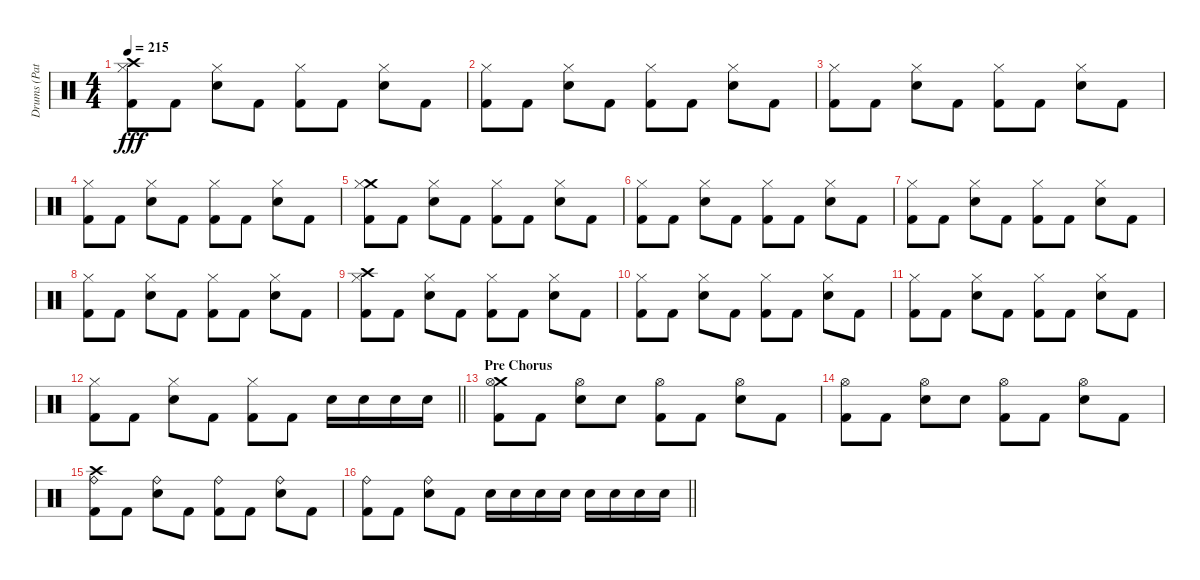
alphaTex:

\track ("Drums (Pat Thetic)" "Drums (Pat") {instrument percussion}
\staff {score}
\articulation defaults
\ts (4 4)
\tempo 215
\clef neutral
\ks c
("Crash high (hit)" "Hi-Hat (closed)" "Kick (hit) 2").8{dy fff} "Kick (hit) 2".8 ("Hi-Hat (closed)" "Snare (hit) 2").8 "Kick (hit) 2".8 ("Hi-Hat (closed)" "Kick (hit) 2").8 "Kick (hit) 2".8 ("Hi-Hat (closed)" "Snare (hit) 2").8 "Kick (hit) 2".8 |
("Hi-Hat (closed)" "Kick (hit) 2").8 "Kick (hit) 2".8 ("Hi-Hat (closed)" "Snare (hit) 2").8 "Kick (hit) 2".8 ("Hi-Hat (closed)" "Kick (hit) 2").8 "Kick (hit) 2".8 ("Hi-Hat (closed)" "Snare (hit) 2").8 "Kick (hit) 2".8 |
("Hi-Hat (closed)" "Kick (hit) 2").8 "Kick (hit) 2".8 ("Hi-Hat (closed)" "Snare (hit) 2").8 "Kick (hit) 2".8 ("Hi-Hat (closed)" "Kick (hit) 2").8 "Kick (hit) 2".8 ("Hi-Hat (closed)" "Snare (hit) 2").8 "Kick (hit) 2".8 |
("Hi-Hat (closed)" "Kick (hit) 2").8 "Kick (hit) 2".8 ("Hi-Hat (closed)" "Snare (hit) 2").8 "Kick (hit) 2".8 ("Hi-Hat (closed)" "Kick (hit) 2").8 "Kick (hit) 2".8 ("Hi-Hat (closed)" "Snare (hit) 2").8 "Kick (hit) 2".8 |
("Crash medium (hit)" "Hi-Hat (closed)" "Kick (hit) 2").8 "Kick (hit) 2".8 ("Hi-Hat (closed)" "Snare (hit) 2").8 "Kick (hit) 2".8 ("Hi-Hat (closed)" "Kick (hit) 2").8 "Kick (hit) 2".8 ("Hi-Hat (closed)" "Snare (hit) 2").8 "Kick (hit) 2".8 |
("Hi-Hat (closed)" "Kick (hit) 2").8 "Kick (hit) 2".8 ("Hi-Hat (closed)" "Snare (hit) 2").8 "Kick (hit) 2".8 ("Hi-Hat (closed)" "Kick (hit) 2").8 "Kick (hit) 2".8 ("Hi-Hat (closed)" "Snare (hit) 2").8 "Kick (hit) 2".8 |
("Hi-Hat (closed)" "Kick (hit) 2").8 "Kick (hit) 2".8 ("Hi-Hat (closed)" "Snare (hit) 2").8 "Kick (hit) 2".8 ("Hi-Hat (closed)" "Kick (hit) 2").8 "Kick (hit) 2".8 ("Hi-Hat (closed)" "Snare (hit) 2").8 "Kick (hit) 2".8 |
("Hi-Hat (closed)" "Kick (hit) 2").8 "Kick (hit) 2".8 ("Hi-Hat (closed)" "Snare (hit) 2").8 "Kick (hit) 2".8 ("Hi-Hat (closed)" "Kick (hit) 2").8 "Kick (hit) 2".8 ("Hi-Hat (closed)" "Snare (hit) 2").8 "Kick (hit) 2".8 |
("Crash high (hit)" "Hi-Hat (closed)" "Kick (hit) 2").8 "Kick (hit) 2".8 ("Hi-Hat (closed)" "Snare (hit) 2").8 "Kick (hit) 2".8 ("Hi-Hat (closed)" "Kick (hit) 2").8 "Kick (hit) 2".8 ("Hi-Hat (closed)" "Snare (hit) 2").8 "Kick (hit) 2".8 |
("Hi-Hat (closed)" "Kick (hit) 2").8 "Kick (hit) 2".8 ("Hi-Hat (closed)" "Snare (hit) 2").8 "Kick (hit) 2".8 ("Hi-Hat (closed)" "Kick (hit) 2").8 "Kick (hit) 2".8 ("Hi-Hat (closed)" "Snare (hit) 2").8 "Kick (hit) 2".8 |
("Hi-Hat (closed)" "Kick (hit) 2").8 "Kick (hit) 2".8 ("Hi-Hat (closed)" "Snare (hit) 2").8 "Kick (hit) 2".8 ("Hi-Hat (closed)" "Kick (hit) 2").8 "Kick (hit) 2".8 ("Hi-Hat (closed)" "Snare (hit) 2").8 "Kick (hit) 2".8 |
\barLineRight lightlight
("Hi-Hat (closed)" "Kick (hit) 2").8 "Kick (hit) 2".8 ("Hi-Hat (closed)" "Snare (hit) 2").8 "Kick (hit) 2".8 ("Hi-Hat (closed)" "Kick (hit) 2").8 "Kick (hit) 2".8 "Snare (hit) 2".16 "Snare (hit) 2".16 "Snare (hit) 2".16 "Snare (hit) 2".16 |
\section ("" "Pre Chorus")
("Crash medium (hit)" "Hi-Hat (open)" "Kick (hit) 2").8 "Kick (hit) 2".8 ("Hi-Hat (open)" "Snare (hit) 2").8 "Snare (hit) 2".8 ("Hi-Hat (open)" "Kick (hit) 2").8 "Kick (hit) 2".8 ("Hi-Hat (open)" "Snare (hit) 2").8 "Kick (hit) 2".8 |
("Hi-Hat (open)" "Kick (hit) 2").8 "Kick (hit) 2".8 ("Hi-Hat (open)" "Snare (hit) 2").8 "Snare (hit) 2".8 ("Hi-Hat (open)" "Kick (hit) 2").8 "Kick (hit) 2".8 ("Hi-Hat (open)" "Snare (hit) 2").8 "Kick (hit) 2".8 |
("Crash high (hit)" "Ride (bell)" "Kick (hit) 2").8 "Kick (hit) 2".8 ("Ride (bell)" "Snare (hit) 2").8 "Kick (hit) 2".8 ("Ride (bell)" "Kick (hit) 2").8 "Kick (hit) 2".8 ("Ride (bell)" "Snare (hit) 2").8 "Kick (hit) 2".8 |
\barLineRight lightlight
("Ride (bell)" "Kick (hit) 2").8 "Kick (hit) 2".8 ("Ride (bell)" "Snare (hit) 2").8 "Kick (hit) 2".8 "Snare (hit) 2".16 "Snare (hit) 2".16 "Snare (hit) 2".16 "Snare (hit) 2".16 "Snare (hit) 2".16 "Snare (hit) 2".16 "Snare (hit) 2".16 "Snare (hit) 2".16
